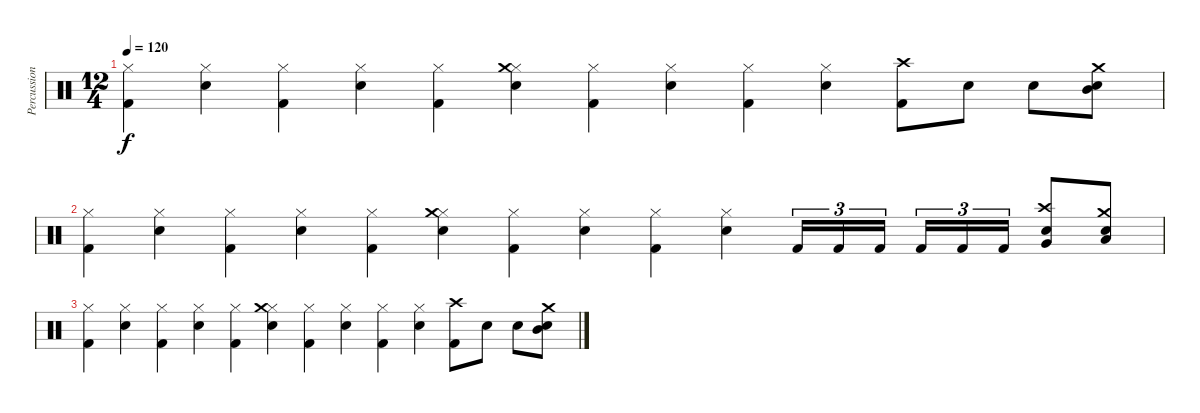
\track ("Percussions" "Percussion") {instrument percussion}
\staff {score}
\articulation defaults
\ts (12 4)
\tempo 120
\clef neutral
\ks c
("Hi-Hat (closed)" "Kick (hit) 2").4{dy f} ("Hi-Hat (closed)" "Electric Snare (hit)").4 ("Hi-Hat (closed)" "Kick (hit) 2").4 ("Hi-Hat (closed)" "Electric Snare (hit)").4 ("Hi-Hat (closed)" "Kick (hit) 2").4 ("Hi-Hat (closed)" "Electric Snare (hit)" "Crash medium (hit)").4 ("Hi-Hat (closed)" "Kick (hit) 2").4 ("Hi-Hat (closed)" "Electric Snare (hit)").4 ("Hi-Hat (closed)" "Kick (hit) 2").4 ("Hi-Hat (closed)" "Electric Snare (hit)").4 ("Kick (hit) 2" "Crash high (hit)").8 "Electric Snare (hit)".8 "Electric Snare (hit)".8 ("Electric Snare (hit)" "Crash medium (hit)" "Mid Tom (hit)").8 |
("Hi-Hat (closed)" "Kick (hit) 2").4 ("Hi-Hat (closed)" "Electric Snare (hit)").4 ("Hi-Hat (closed)" "Kick (hit) 2").4 ("Hi-Hat (closed)" "Electric Snare (hit)").4 ("Hi-Hat (closed)" "Kick (hit) 2").4 ("Hi-Hat (closed)" "Electric Snare (hit)" "Crash medium (hit)").4 ("Hi-Hat (closed)" "Kick (hit) 2").4 ("Hi-Hat (closed)" "Electric Snare (hit)").4 ("Hi-Hat (closed)" "Kick (hit) 2").4 ("Hi-Hat (closed)" "Electric Snare (hit)").4 "Kick (hit) 2".16{tu (3 2)} "Kick (hit) 2".16{tu (3 2)} "Kick (hit) 2".16{tu (3 2)} "Kick (hit) 2".16{tu (3 2)} "Kick (hit) 2".16{tu (3 2)} "Kick (hit) 2".16{tu (3 2)} ("Very Low Tom (hit)" "Electric Snare (hit)" "Crash high (hit)").8 ("Electric Snare (hit)" "Low Tom (hit)" "Crash medium (hit)").8 |
("Hi-Hat (closed)" "Kick (hit) 2").4 ("Hi-Hat (closed)" "Electric Snare (hit)").4 ("Hi-Hat (closed)" "Kick (hit) 2").4 ("Hi-Hat (closed)" "Electric Snare (hit)").4 ("Hi-Hat (closed)" "Kick (hit) 2").4 ("Hi-Hat (closed)" "Electric Snare (hit)" "Crash medium (hit)").4 ("Hi-Hat (closed)" "Kick (hit) 2").4 ("Hi-Hat (closed)" "Electric Snare (hit)").4 ("Hi-Hat (closed)" "Kick (hit) 2").4 ("Hi-Hat (closed)" "Electric Snare (hit)").4 ("Kick (hit) 2" "Crash high (hit)").8 "Electric Snare (hit)".8 "Electric Snare (hit)".8 ("Electric Snare (hit)" "Crash medium (hit)" "Mid Tom (hit)").8
